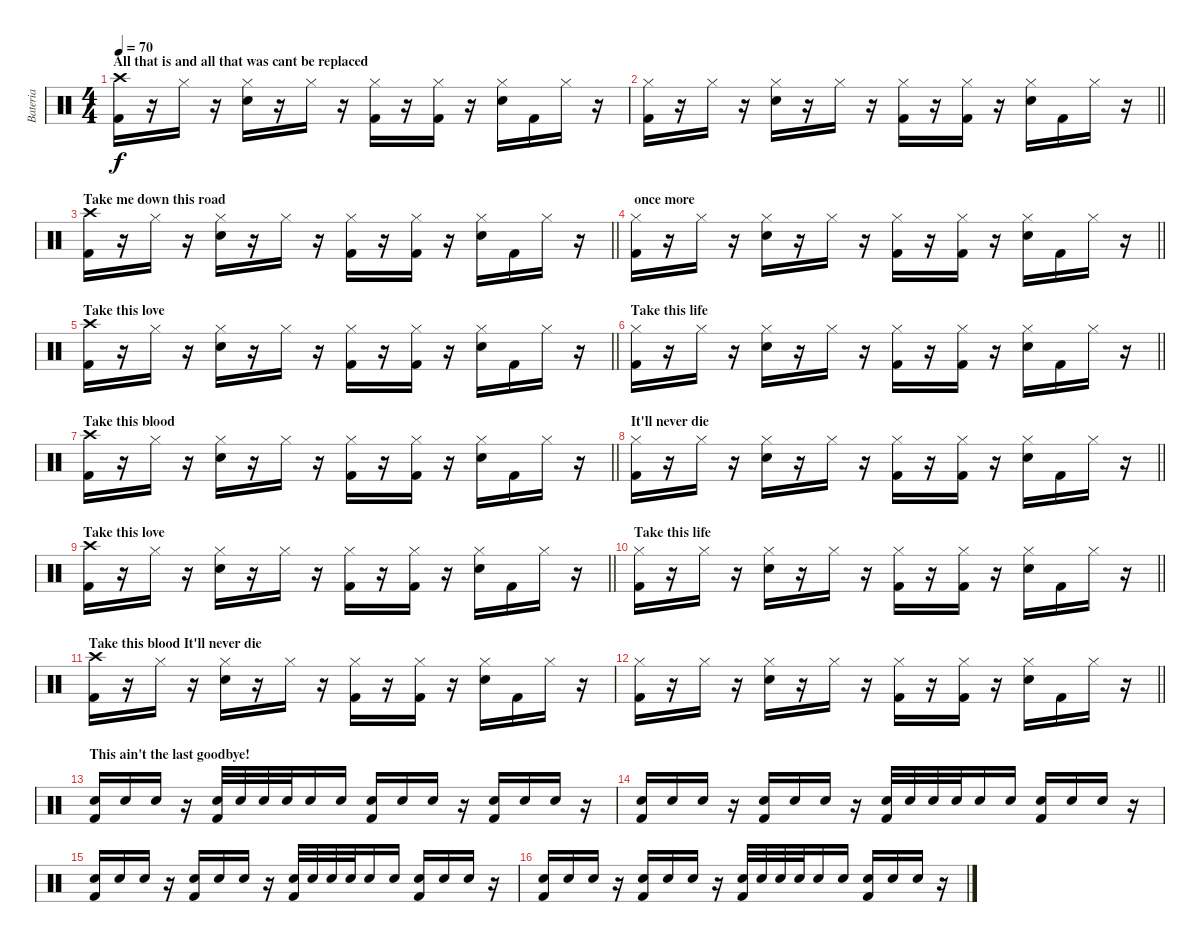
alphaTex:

\track ("Bateria" "Bateria") {instrument percussion}
\staff {score}
\articulation defaults
\ts (4 4)
\section ("" "All that is and all that was cant be replaced")
\tempo 70
\clef neutral
\ks c
("Crash high (hit)" "Kick (hit) 2").16{dy f} r.16 "Hi-Hat (closed)".16 r.16 ("Hi-Hat (closed)" "Electric Snare (hit)").16 r.16 "Hi-Hat (closed)".16 r.16 ("Hi-Hat (closed)" "Kick (hit) 2").16 r.16 ("Hi-Hat (closed)" "Kick (hit) 2").16 r.16 ("Hi-Hat (closed)" "Electric Snare (hit)").16 "Kick (hit) 2".16 "Hi-Hat (closed)".16 r.16 |
\barLineRight lightlight
("Hi-Hat (closed)" "Kick (hit) 2").16 r.16 "Hi-Hat (closed)".16 r.16 ("Hi-Hat (closed)" "Electric Snare (hit)").16 r.16 "Hi-Hat (closed)".16 r.16 ("Hi-Hat (closed)" "Kick (hit) 2").16 r.16 ("Hi-Hat (closed)" "Kick (hit) 2").16 r.16 ("Hi-Hat (closed)" "Electric Snare (hit)").16 "Kick (hit) 2".16 "Hi-Hat (closed)".16 r.16 |
\section ("" "Take me down this road ")
\barLineRight lightlight
("Crash high (hit)" "Kick (hit) 2").16 r.16 "Hi-Hat (closed)".16 r.16 ("Hi-Hat (closed)" "Electric Snare (hit)").16 r.16 "Hi-Hat (closed)".16 r.16 ("Hi-Hat (closed)" "Kick (hit) 2").16 r.16 ("Hi-Hat (closed)" "Kick (hit) 2").16 r.16 ("Hi-Hat (closed)" "Electric Snare (hit)").16 "Kick (hit) 2".16 "Hi-Hat (closed)".16 r.16 |
\section ("" " once more")
\barLineRight lightlight
("Hi-Hat (closed)" "Kick (hit) 2").16 r.16 "Hi-Hat (closed)".16 r.16 ("Hi-Hat (closed)" "Electric Snare (hit)").16 r.16 "Hi-Hat (closed)".16 r.16 ("Hi-Hat (closed)" "Kick (hit) 2").16 r.16 ("Hi-Hat (closed)" "Kick (hit) 2").16 r.16 ("Hi-Hat (closed)" "Electric Snare (hit)").16 "Kick (hit) 2".16 "Hi-Hat (closed)".16 r.16 |
\section ("" "Take this love")
\barLineRight lightlight
("Crash high (hit)" "Kick (hit) 2").16 r.16 "Hi-Hat (closed)".16 r.16 ("Hi-Hat (closed)" "Electric Snare (hit)").16 r.16 "Hi-Hat (closed)".16 r.16 ("Hi-Hat (closed)" "Kick (hit) 2").16 r.16 ("Hi-Hat (closed)" "Kick (hit) 2").16 r.16 ("Hi-Hat (closed)" "Electric Snare (hit)").16 "Kick (hit) 2".16 "Hi-Hat (closed)".16 r.16 |
\section ("" "Take this life")
\barLineRight lightlight
("Hi-Hat (closed)" "Kick (hit) 2").16 r.16 "Hi-Hat (closed)".16 r.16 ("Hi-Hat (closed)" "Electric Snare (hit)").16 r.16 "Hi-Hat (closed)".16 r.16 ("Hi-Hat (closed)" "Kick (hit) 2").16 r.16 ("Hi-Hat (closed)" "Kick (hit) 2").16 r.16 ("Hi-Hat (closed)" "Electric Snare (hit)").16 "Kick (hit) 2".16 "Hi-Hat (closed)".16 r.16 |
\section ("" "Take this blood")
\barLineRight lightlight
("Crash high (hit)" "Kick (hit) 2").16 r.16 "Hi-Hat (closed)".16 r.16 ("Hi-Hat (closed)" "Electric Snare (hit)").16 r.16 "Hi-Hat (closed)".16 r.16 ("Hi-Hat (closed)" "Kick (hit) 2").16 r.16 ("Hi-Hat (closed)" "Kick (hit) 2").16 r.16 ("Hi-Hat (closed)" "Electric Snare (hit)").16 "Kick (hit) 2".16 "Hi-Hat (closed)".16 r.16 |
\section ("" "It'll never die")
\barLineRight lightlight
("Hi-Hat (closed)" "Kick (hit) 2").16 r.16 "Hi-Hat (closed)".16 r.16 ("Hi-Hat (closed)" "Electric Snare (hit)").16 r.16 "Hi-Hat (closed)".16 r.16 ("Hi-Hat (closed)" "Kick (hit) 2").16 r.16 ("Hi-Hat (closed)" "Kick (hit) 2").16 r.16 ("Hi-Hat (closed)" "Electric Snare (hit)").16 "Kick (hit) 2".16 "Hi-Hat (closed)".16 r.16 |
\section ("" "Take this love")
\barLineRight lightlight
("Crash high (hit)" "Kick (hit) 2").16 r.16 "Hi-Hat (closed)".16 r.16 ("Hi-Hat (closed)" "Electric Snare (hit)").16 r.16 "Hi-Hat (closed)".16 r.16 ("Hi-Hat (closed)" "Kick (hit) 2").16 r.16 ("Hi-Hat (closed)" "Kick (hit) 2").16 r.16 ("Hi-Hat (closed)" "Electric Snare (hit)").16 "Kick (hit) 2".16 "Hi-Hat (closed)".16 r.16 |
\section ("" "Take this life")
\barLineRight lightlight
("Hi-Hat (closed)" "Kick (hit) 2").16 r.16 "Hi-Hat (closed)".16 r.16 ("Hi-Hat (closed)" "Electric Snare (hit)").16 r.16 "Hi-Hat (closed)".16 r.16 ("Hi-Hat (closed)" "Kick (hit) 2").16 r.16 ("Hi-Hat (closed)" "Kick (hit) 2").16 r.16 ("Hi-Hat (closed)" "Electric Snare (hit)").16 "Kick (hit) 2".16 "Hi-Hat (closed)".16 r.16 |
\section ("" "Take this blood It'll never die")
("Crash high (hit)" "Kick (hit) 2").16 r.16 "Hi-Hat (closed)".16 r.16 ("Hi-Hat (closed)" "Electric Snare (hit)").16 r.16 "Hi-Hat (closed)".16 r.16 ("Hi-Hat (closed)" "Kick (hit) 2").16 r.16 ("Hi-Hat (closed)" "Kick (hit) 2").16 r.16 ("Hi-Hat (closed)" "Electric Snare (hit)").16 "Kick (hit) 2".16 "Hi-Hat (closed)".16 r.16 |
\barLineRight lightlight
("Hi-Hat (closed)" "Kick (hit) 2").16 r.16 "Hi-Hat (closed)".16 r.16 ("Hi-Hat (closed)" "Electric Snare (hit)").16 r.16 "Hi-Hat (closed)".16 r.16 ("Hi-Hat (closed)" "Kick (hit) 2").16 r.16 ("Hi-Hat (closed)" "Kick (hit) 2").16 r.16 ("Hi-Hat (closed)" "Electric Snare (hit)").16 "Kick (hit) 2".16 "Hi-Hat (closed)".16 r.16 |
\section ("" "This ain't the last goodbye!")
("Electric Snare (hit)" "Kick (hit) 2").16 "Electric Snare (hit)".16 "Electric Snare (hit)".16 r.16 ("Electric Snare (hit)" "Kick (hit) 2").32 "Electric Snare (hit)".32 "Electric Snare (hit)".32 "Electric Snare (hit)".32 "Electric Snare (hit)".16 "Electric Snare (hit)".16 ("Electric Snare (hit)" "Kick (hit) 2").16 "Electric Snare (hit)".16 "Electric Snare (hit)".16 r.16 ("Electric Snare (hit)" "Kick (hit) 2").16 "Electric Snare (hit)".16 "Electric Snare (hit)".16 r.16 |
("Electric Snare (hit)" "Kick (hit) 2").16 "Electric Snare (hit)".16 "Electric Snare (hit)".16 r.16 ("Electric Snare (hit)" "Kick (hit) 2").16 "Electric Snare (hit)".16 "Electric Snare (hit)".16 r.16 ("Electric Snare (hit)" "Kick (hit) 2").32 "Electric Snare (hit)".32 "Electric Snare (hit)".32 "Electric Snare (hit)".32 "Electric Snare (hit)".16 "Electric Snare (hit)".16 ("Electric Snare (hit)" "Kick (hit) 2").16 "Electric Snare (hit)".16 "Electric Snare (hit)".16 r.16 |
("Electric Snare (hit)" "Kick (hit) 2").16 "Electric Snare (hit)".16 "Electric Snare (hit)".16 r.16 ("Electric Snare (hit)" "Kick (hit) 2").16 "Electric Snare (hit)".16 "Electric Snare (hit)".16 r.16 ("Electric Snare (hit)" "Kick (hit) 2").32 "Electric Snare (hit)".32 "Electric Snare (hit)".32 "Electric Snare (hit)".32 "Electric Snare (hit)".16 "Electric Snare (hit)".16 ("Electric Snare (hit)" "Kick (hit) 2").16 "Electric Snare (hit)".16 "Electric Snare (hit)".16 r.16 |
("Electric Snare (hit)" "Kick (hit) 2").16 "Electric Snare (hit)".16 "Electric Snare (hit)".16 r.16 ("Electric Snare (hit)" "Kick (hit) 2").16 "Electric Snare (hit)".16 "Electric Snare (hit)".16 r.16 ("Electric Snare (hit)" "Kick (hit) 2").32 "Electric Snare (hit)".32 "Electric Snare (hit)".32 "Electric Snare (hit)".32 "Electric Snare (hit)".16 "Electric Snare (hit)".16 ("Electric Snare (hit)" "Kick (hit) 2").16 "Electric Snare (hit)".16 "Electric Snare (hit)".16 r.16
